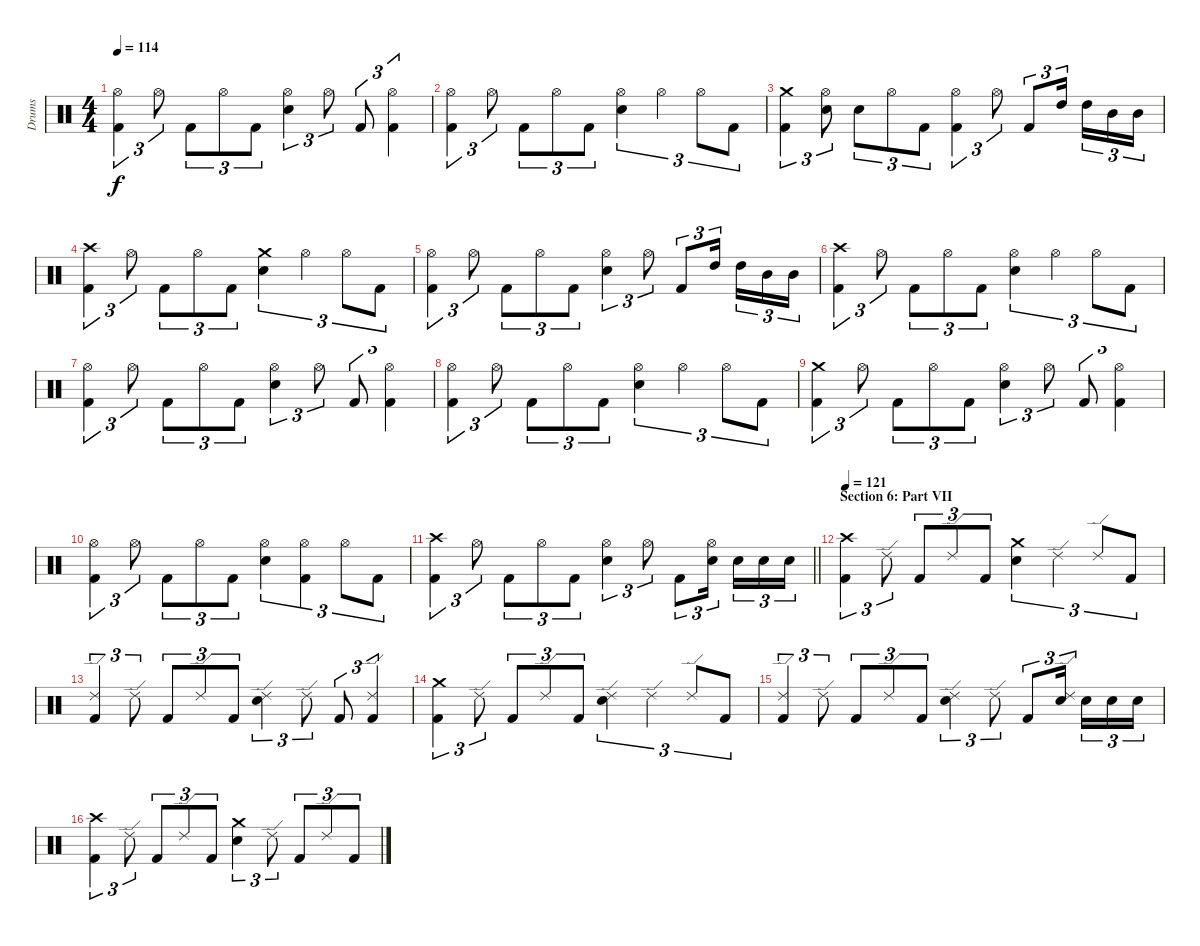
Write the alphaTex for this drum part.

\track ("Drums" "Drums") {instrument percussion}
\staff {score}
\articulation defaults
\ts (4 4)
\tempo 114
\clef neutral
\ks c
("Hi-Hat (open)" "Kick (hit) 2").4{tu (3 2) dy f} "Hi-Hat (open)".8{tu (3 2)} "Kick (hit) 2".8{tu (3 2)} "Hi-Hat (open)".8{tu (3 2)} "Kick (hit) 2".8{tu (3 2)} ("Hi-Hat (open)" "Electric Snare (hit)").4{tu (3 2)} "Hi-Hat (open)".8{tu (3 2)} "Kick (hit) 2".8{tu (3 2)} ("Hi-Hat (open)" "Kick (hit) 2").4{tu (3 2)} |
("Hi-Hat (open)" "Kick (hit) 2").4{tu (3 2)} "Hi-Hat (open)".8{tu (3 2)} "Kick (hit) 2".8{tu (3 2)} "Hi-Hat (open)".8{tu (3 2)} "Kick (hit) 2".8{tu (3 2)} ("Hi-Hat (open)" "Electric Snare (hit)").4{tu (3 2)} "Hi-Hat (open)".4{tu (3 2)} "Hi-Hat (open)".8{tu (3 2)} "Kick (hit) 2".8{tu (3 2)} |
("Crash medium (hit)" "Kick (hit) 2").4{tu (3 2)} ("Hi-Hat (open)" "Electric Snare (hit)").8{tu (3 2)} "Electric Snare (hit)".8{tu (3 2)} "Hi-Hat (open)".8{tu (3 2)} "Kick (hit) 2".8{tu (3 2)} ("Hi-Hat (open)" "Kick (hit) 2").4{tu (3 2)} "Hi-Hat (open)".8{tu (3 2)} "Kick (hit) 2".8{tu (3 2)} "High Tom (hit)".16{tu (3 2) beam splitsecondary} "High Tom (hit)".16{tu (3 2)} "Mid Tom (hit)".16{tu (3 2)} "Mid Tom (hit)".16{tu (3 2)} |
("Crash high (hit)" "Kick (hit) 2").4{tu (3 2)} "Hi-Hat (open)".8{tu (3 2)} "Kick (hit) 2".8{tu (3 2)} "Hi-Hat (open)".8{tu (3 2)} "Kick (hit) 2".8{tu (3 2)} ("Crash medium (hit)" "Electric Snare (hit)").4{tu (3 2)} "Hi-Hat (open)".4{tu (3 2)} "Hi-Hat (open)".8{tu (3 2)} "Kick (hit) 2".8{tu (3 2)} |
("Hi-Hat (open)" "Kick (hit) 2").4{tu (3 2)} "Hi-Hat (open)".8{tu (3 2)} "Kick (hit) 2".8{tu (3 2)} "Hi-Hat (open)".8{tu (3 2)} "Kick (hit) 2".8{tu (3 2)} ("Hi-Hat (open)" "Electric Snare (hit)").4{tu (3 2)} "Hi-Hat (open)".8{tu (3 2)} "Kick (hit) 2".8{tu (3 2)} "High Tom (hit)".16{tu (3 2) beam splitsecondary} "High Tom (hit)".16{tu (3 2)} "Mid Tom (hit)".16{tu (3 2)} "Mid Tom (hit)".16{tu (3 2)} |
("Crash high (hit)" "Kick (hit) 2").4{tu (3 2)} "Hi-Hat (open)".8{tu (3 2)} "Kick (hit) 2".8{tu (3 2)} "Hi-Hat (open)".8{tu (3 2)} "Kick (hit) 2".8{tu (3 2)} ("Hi-Hat (open)" "Electric Snare (hit)").4{tu (3 2)} "Hi-Hat (open)".4{tu (3 2)} "Hi-Hat (open)".8{tu (3 2)} "Kick (hit) 2".8{tu (3 2)} |
("Hi-Hat (open)" "Kick (hit) 2").4{tu (3 2)} "Hi-Hat (open)".8{tu (3 2)} "Kick (hit) 2".8{tu (3 2)} "Hi-Hat (open)".8{tu (3 2)} "Kick (hit) 2".8{tu (3 2)} ("Hi-Hat (open)" "Electric Snare (hit)").4{tu (3 2)} "Hi-Hat (open)".8{tu (3 2)} "Kick (hit) 2".8{tu (3 2)} ("Hi-Hat (open)" "Kick (hit) 2").4{tu (3 2)} |
("Hi-Hat (open)" "Kick (hit) 2").4{tu (3 2)} "Hi-Hat (open)".8{tu (3 2)} "Kick (hit) 2".8{tu (3 2)} "Hi-Hat (open)".8{tu (3 2)} "Kick (hit) 2".8{tu (3 2)} ("Hi-Hat (open)" "Electric Snare (hit)").4{tu (3 2)} "Hi-Hat (open)".4{tu (3 2)} "Hi-Hat (open)".8{tu (3 2)} "Kick (hit) 2".8{tu (3 2)} |
("Crash medium (hit)" "Kick (hit) 2").4{tu (3 2)} "Hi-Hat (open)".8{tu (3 2)} "Kick (hit) 2".8{tu (3 2)} "Hi-Hat (open)".8{tu (3 2)} "Kick (hit) 2".8{tu (3 2)} ("Hi-Hat (open)" "Electric Snare (hit)").4{tu (3 2)} "Hi-Hat (open)".8{tu (3 2)} "Kick (hit) 2".8{tu (3 2)} ("Hi-Hat (open)" "Kick (hit) 2").4{tu (3 2)} |
("Hi-Hat (open)" "Kick (hit) 2").4{tu (3 2)} "Hi-Hat (open)".8{tu (3 2)} "Kick (hit) 2".8{tu (3 2)} "Hi-Hat (open)".8{tu (3 2)} "Kick (hit) 2".8{tu (3 2)} ("Hi-Hat (open)" "Electric Snare (hit)").4{tu (3 2)} ("Hi-Hat (open)" "Kick (hit) 2").4{tu (3 2)} "Hi-Hat (open)".8{tu (3 2)} "Kick (hit) 2".8{tu (3 2)} |
\barLineRight lightlight
("Crash high (hit)" "Kick (hit) 2").4{tu (3 2)} "Hi-Hat (open)".8{tu (3 2)} "Kick (hit) 2".8{tu (3 2)} "Hi-Hat (open)".8{tu (3 2)} "Kick (hit) 2".8{tu (3 2)} ("Hi-Hat (open)" "Electric Snare (hit)").4{tu (3 2)} "Hi-Hat (open)".8{tu (3 2)} "Kick (hit) 2".8{tu (3 2)} ("Hi-Hat (open)" "Electric Snare (hit)").16{tu (3 2) beam splitsecondary} "Electric Snare (hit)".16{tu (3 2)} "Electric Snare (hit)".16{tu (3 2)} "Electric Snare (hit)".16{tu (3 2)} |
\section ("" "Section 6: Part VII")
\tempo 121
("Crash high (hit)" "Kick (hit) 2").4{tu (3 2) volume 16} "Ride (edge) 2".8{tu (3 2)} "Kick (hit) 2".8{tu (3 2)} "Ride (edge) 2".8{tu (3 2)} "Kick (hit) 2".8{tu (3 2)} ("Crash medium (hit)" "Electric Snare (hit)").4{tu (3 2)} "Ride (edge) 2".4{tu (3 2)} "Ride (edge) 2".8{tu (3 2)} "Kick (hit) 2".8{tu (3 2)} |
("Ride (edge) 2" "Kick (hit) 2").4{tu (3 2)} "Ride (edge) 2".8{tu (3 2)} "Kick (hit) 2".8{tu (3 2)} "Ride (edge) 2".8{tu (3 2)} "Kick (hit) 2".8{tu (3 2)} ("Ride (edge) 2" "Electric Snare (hit)").4{tu (3 2)} "Ride (edge) 2".8{tu (3 2)} "Kick (hit) 2".8{tu (3 2)} ("Ride (edge) 2" "Kick (hit) 2").4{tu (3 2)} |
("Crash medium (hit)" "Kick (hit) 2").4{tu (3 2)} "Ride (edge) 2".8{tu (3 2)} "Kick (hit) 2".8{tu (3 2)} "Ride (edge) 2".8{tu (3 2)} "Kick (hit) 2".8{tu (3 2)} ("Ride (edge) 2" "Electric Snare (hit)").4{tu (3 2)} "Ride (edge) 2".4{tu (3 2)} "Ride (edge) 2".8{tu (3 2)} "Kick (hit) 2".8{tu (3 2)} |
("Ride (edge) 2" "Kick (hit) 2").4{tu (3 2)} "Ride (edge) 2".8{tu (3 2)} "Kick (hit) 2".8{tu (3 2)} "Ride (edge) 2".8{tu (3 2)} "Kick (hit) 2".8{tu (3 2)} ("Ride (edge) 2" "Electric Snare (hit)").4{tu (3 2)} "Ride (edge) 2".8{tu (3 2)} "Kick (hit) 2".8{tu (3 2)} ("Ride (edge) 2" "Electric Snare (hit)").16{tu (3 2) beam splitsecondary} "Electric Snare (hit)".16{tu (3 2)} "Electric Snare (hit)".16{tu (3 2)} "Electric Snare (hit)".16{tu (3 2)} |
("Crash high (hit)" "Kick (hit) 2").4{tu (3 2)} "Ride (edge) 2".8{tu (3 2)} "Kick (hit) 2".8{tu (3 2)} "Ride (edge) 2".8{tu (3 2)} "Kick (hit) 2".8{tu (3 2)} ("Crash medium (hit)" "Electric Snare (hit)").4{tu (3 2)} "Ride (edge) 2".8{tu (3 2)} "Kick (hit) 2".8{tu (3 2)} "Ride (edge) 2".8{tu (3 2)} "Kick (hit) 2".8{tu (3 2)}
